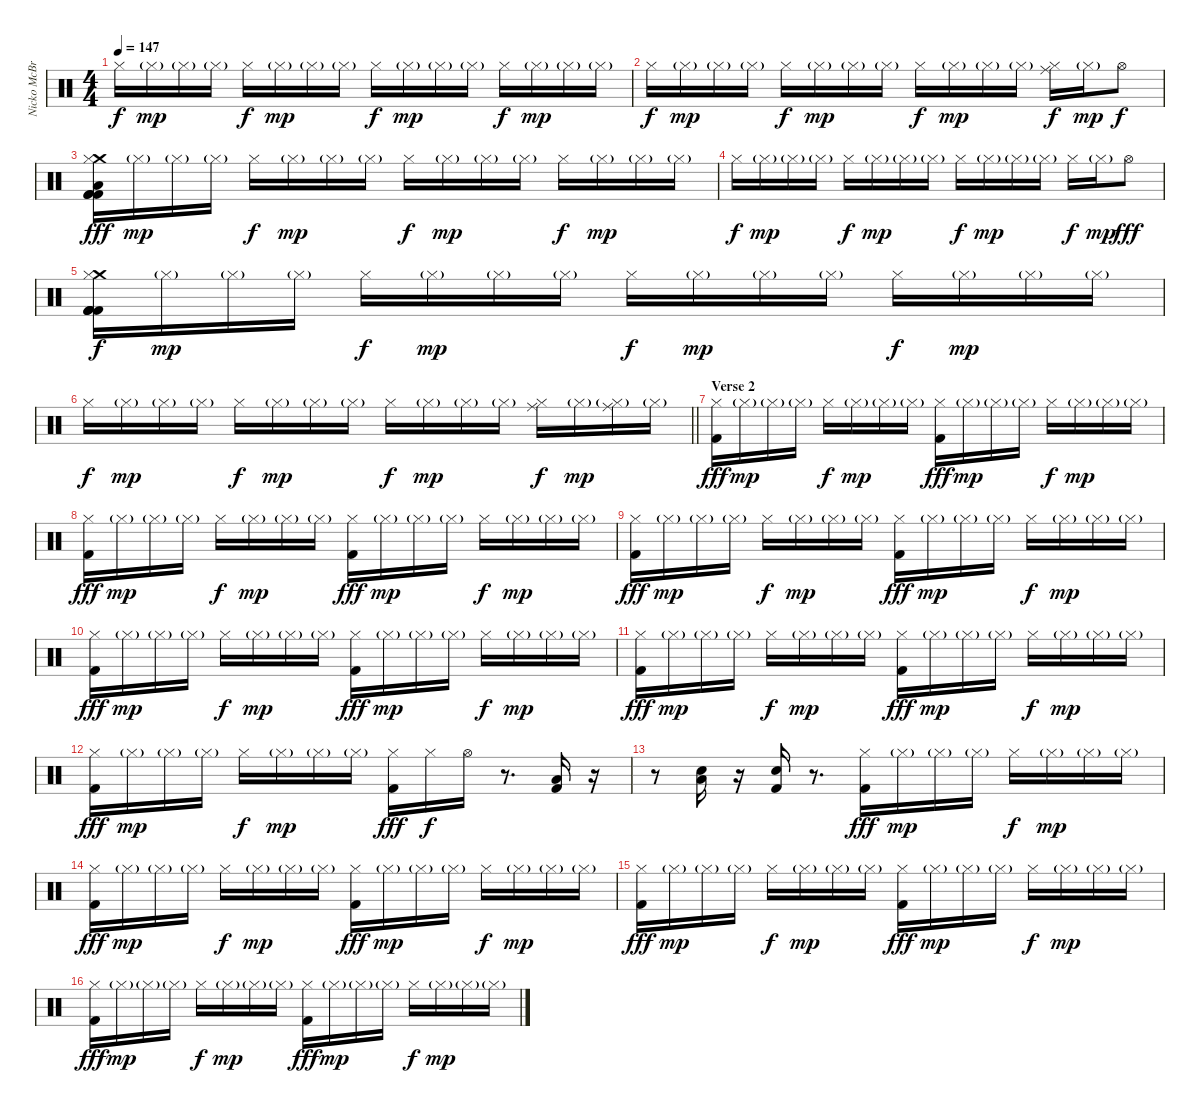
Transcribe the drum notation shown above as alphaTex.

\track ("Nicko McBrain" "Nicko McBr") {instrument percussion}
\staff {score}
\articulation defaults
\ts (4 4)
\tempo 147
\clef neutral
\ks c "Hi-Hat (closed)".16{dy f} "Hi-Hat (closed)"{g}.16{dy mp} "Hi-Hat (closed)"{g}.16 "Hi-Hat (closed)"{g}.16 "Hi-Hat (closed)".16{dy f} "Hi-Hat (closed)"{g}.16{dy mp} "Hi-Hat (closed)"{g}.16 "Hi-Hat (closed)"{g}.16 "Hi-Hat (closed)".16{dy f} "Hi-Hat (closed)"{g}.16{dy mp} "Hi-Hat (closed)"{g}.16 "Hi-Hat (closed)"{g}.16 "Hi-Hat (closed)".16{dy f} "Hi-Hat (closed)"{g}.16{dy mp} "Hi-Hat (closed)"{g}.16 "Hi-Hat (closed)"{g}.16
|
"Hi-Hat (closed)".16{dy f} "Hi-Hat (closed)"{g}.16{dy mp} "Hi-Hat (closed)"{g}.16 "Hi-Hat (closed)"{g}.16 "Hi-Hat (closed)".16{dy f} "Hi-Hat (closed)"{g}.16{dy mp} "Hi-Hat (closed)"{g}.16 "Hi-Hat (closed)"{g}.16 "Hi-Hat (closed)".16{dy f} "Hi-Hat (closed)"{g}.16{dy mp} "Hi-Hat (closed)"{g}.16 "Hi-Hat (closed)"{g}.16 ("Ride (middle)" "Hi-Hat (closed)").16{dy f} "Hi-Hat (closed)"{g}.16{dy mp} "Hi-Hat (open)".8{dy f} |
("Crash medium (hit)" "Low Floor Tom (hit)" "Kick (hit) 2" "Kick (hit) 2" "Hi-Hat (closed)" "Kick (hit) 2").16{dy fff} "Hi-Hat (closed)"{g}.16{dy mp} "Hi-Hat (closed)"{g}.16 "Hi-Hat (closed)"{g}.16 "Hi-Hat (closed)".16{dy f} "Hi-Hat (closed)"{g}.16{dy mp} "Hi-Hat (closed)"{g}.16 "Hi-Hat (closed)"{g}.16 "Hi-Hat (closed)".16{dy f} "Hi-Hat (closed)"{g}.16{dy mp} "Hi-Hat (closed)"{g}.16 "Hi-Hat (closed)"{g}.16 "Hi-Hat (closed)".16{dy f} "Hi-Hat (closed)"{g}.16{dy mp} "Hi-Hat (closed)"{g}.16 "Hi-Hat (closed)"{g}.16 |
"Hi-Hat (closed)".16{dy f} "Hi-Hat (closed)"{g}.16{dy mp} "Hi-Hat (closed)"{g}.16 "Hi-Hat (closed)"{g}.16 "Hi-Hat (closed)".16{dy f} "Hi-Hat (closed)"{g}.16{dy mp} "Hi-Hat (closed)"{g}.16 "Hi-Hat (closed)"{g}.16 "Hi-Hat (closed)".16{dy f} "Hi-Hat (closed)"{g}.16{dy mp} "Hi-Hat (closed)"{g}.16 "Hi-Hat (closed)"{g}.16 "Hi-Hat (closed)".16{dy f} "Hi-Hat (closed)"{g}.16{dy mp} "Hi-Hat (open)".8{dy fff} |
("Crash medium (hit)" "Kick (hit) 2" "Kick (hit) 2" "Kick (hit) 2" "Hi-Hat (closed)" "Kick (hit) 2").16{dy f} "Hi-Hat (closed)"{g}.16{dy mp} "Hi-Hat (closed)"{g}.16 "Hi-Hat (closed)"{g}.16 "Hi-Hat (closed)".16{dy f} "Hi-Hat (closed)"{g}.16{dy mp} "Hi-Hat (closed)"{g}.16 "Hi-Hat (closed)"{g}.16 "Hi-Hat (closed)".16{dy f} "Hi-Hat (closed)"{g}.16{dy mp} "Hi-Hat (closed)"{g}.16 "Hi-Hat (closed)"{g}.16 "Hi-Hat (closed)".16{dy f} "Hi-Hat (closed)"{g}.16{dy mp} "Hi-Hat (closed)"{g}.16 "Hi-Hat (closed)"{g}.16 |
\barLineRight lightlight "Hi-Hat (closed)".16{dy f} "Hi-Hat (closed)"{g}.16{dy mp} "Hi-Hat (closed)"{g}.16 "Hi-Hat (closed)"{g}.16 "Hi-Hat (closed)".16{dy f} "Hi-Hat (closed)"{g}.16{dy mp} "Hi-Hat (closed)"{g}.16 "Hi-Hat (closed)"{g}.16 "Hi-Hat (closed)".16{dy f} "Hi-Hat (closed)"{g}.16{dy mp} "Hi-Hat (closed)"{g}.16 "Hi-Hat (closed)"{g}.16
("Ride (middle)" "Hi-Hat (closed)").16{dy f} "Hi-Hat (closed)"{g}.16{dy mp} ("Ride (middle)" "Hi-Hat (closed)"{g}).16 "Hi-Hat (closed)"{g}.16 |
\section ("" "Verse 2")
("Hi-Hat (closed)" "Kick (hit) 2").16{dy fff} "Hi-Hat (closed)"{g}.16{dy mp} "Hi-Hat (closed)"{g}.16 "Hi-Hat (closed)"{g}.16 "Hi-Hat (closed)".16{dy f} "Hi-Hat (closed)"{g}.16{dy mp} "Hi-Hat (closed)"{g}.16 "Hi-Hat (closed)"{g}.16 ("Hi-Hat (closed)" "Kick (hit) 2").16{dy fff} "Hi-Hat (closed)"{g}.16{dy mp} "Hi-Hat (closed)"{g}.16 "Hi-Hat (closed)"{g}.16 "Hi-Hat (closed)".16{dy f} "Hi-Hat (closed)"{g}.16{dy mp} "Hi-Hat (closed)"{g}.16 "Hi-Hat (closed)"{g}.16 |
("Hi-Hat (closed)" "Kick (hit) 2").16{dy fff} "Hi-Hat (closed)"{g}.16{dy mp} "Hi-Hat (closed)"{g}.16 "Hi-Hat (closed)"{g}.16 "Hi-Hat (closed)".16{dy f} "Hi-Hat (closed)"{g}.16{dy mp} "Hi-Hat (closed)"{g}.16 "Hi-Hat (closed)"{g}.16 ("Hi-Hat (closed)" "Kick (hit) 2").16{dy fff} "Hi-Hat (closed)"{g}.16{dy mp} "Hi-Hat (closed)"{g}.16 "Hi-Hat (closed)"{g}.16 "Hi-Hat (closed)".16{dy f} "Hi-Hat (closed)"{g}.16{dy mp} "Hi-Hat (closed)"{g}.16 "Hi-Hat (closed)"{g}.16 |
("Hi-Hat (closed)" "Kick (hit) 2").16{dy fff} "Hi-Hat (closed)"{g}.16{dy mp} "Hi-Hat (closed)"{g}.16 "Hi-Hat (closed)"{g}.16 "Hi-Hat (closed)".16{dy f} "Hi-Hat (closed)"{g}.16{dy mp} "Hi-Hat (closed)"{g}.16 "Hi-Hat (closed)"{g}.16 ("Hi-Hat (closed)" "Kick (hit) 2").16{dy fff} "Hi-Hat (closed)"{g}.16{dy mp} "Hi-Hat (closed)"{g}.16 "Hi-Hat (closed)"{g}.16 "Hi-Hat (closed)".16{dy f} "Hi-Hat (closed)"{g}.16{dy mp} "Hi-Hat (closed)"{g}.16 "Hi-Hat (closed)"{g}.16 |
("Hi-Hat (closed)" "Kick (hit) 2").16{dy fff} "Hi-Hat (closed)"{g}.16{dy mp} "Hi-Hat (closed)"{g}.16 "Hi-Hat (closed)"{g}.16 "Hi-Hat (closed)".16{dy f} "Hi-Hat (closed)"{g}.16{dy mp} "Hi-Hat (closed)"{g}.16 "Hi-Hat (closed)"{g}.16 ("Hi-Hat (closed)" "Kick (hit) 2").16{dy fff} "Hi-Hat (closed)"{g}.16{dy mp} "Hi-Hat (closed)"{g}.16 "Hi-Hat (closed)"{g}.16 "Hi-Hat (closed)".16{dy f} "Hi-Hat (closed)"{g}.16{dy mp} "Hi-Hat (closed)"{g}.16 "Hi-Hat (closed)"{g}.16 |
("Hi-Hat (closed)" "Kick (hit) 2").16{dy fff} "Hi-Hat (closed)"{g}.16{dy mp} "Hi-Hat (closed)"{g}.16 "Hi-Hat (closed)"{g}.16 "Hi-Hat (closed)".16{dy f} "Hi-Hat (closed)"{g}.16{dy mp} "Hi-Hat (closed)"{g}.16 "Hi-Hat (closed)"{g}.16 ("Hi-Hat (closed)" "Kick (hit) 2").16{dy fff} "Hi-Hat (closed)"{g}.16{dy mp} "Hi-Hat (closed)"{g}.16 "Hi-Hat (closed)"{g}.16 "Hi-Hat (closed)".16{dy f} "Hi-Hat (closed)"{g}.16{dy mp} "Hi-Hat (closed)"{g}.16 "Hi-Hat (closed)"{g}.16 |
("Hi-Hat (closed)" "Kick (hit) 2").16{dy fff} "Hi-Hat (closed)"{g}.16{dy mp} "Hi-Hat (closed)"{g}.16 "Hi-Hat (closed)"{g}.16 "Hi-Hat (closed)".16{dy f} "Hi-Hat (closed)"{g}.16{dy mp} "Hi-Hat (closed)"{g}.16 "Hi-Hat (closed)"{g}.16 ("Hi-Hat (closed)" "Kick (hit) 2").16{dy fff} "Hi-Hat (closed)".16{dy f} "Hi-Hat (open)".16 r.8{d} ("Low Floor Tom (hit)" "Kick (hit) 2").16 r.16 |
r.8 ("Low Floor Tom (hit)" "Snare (hit) 2").16 r.16 ("Snare (hit) 2" "Kick (hit) 2").16 r.8{d} ("Hi-Hat (closed)" "Kick (hit) 2").16{dy fff} "Hi-Hat (closed)"{g}.16{dy mp} "Hi-Hat (closed)"{g}.16 "Hi-Hat (closed)"{g}.16 "Hi-Hat (closed)".16{dy f} "Hi-Hat (closed)"{g}.16{dy mp} "Hi-Hat (closed)"{g}.16 "Hi-Hat (closed)"{g}.16 |
("Hi-Hat (closed)" "Kick (hit) 2").16{dy fff} "Hi-Hat (closed)"{g}.16{dy mp} "Hi-Hat (closed)"{g}.16 "Hi-Hat (closed)"{g}.16 "Hi-Hat (closed)".16{dy f} "Hi-Hat (closed)"{g}.16{dy mp} "Hi-Hat (closed)"{g}.16 "Hi-Hat (closed)"{g}.16 ("Hi-Hat (closed)" "Kick (hit) 2").16{dy fff} "Hi-Hat (closed)"{g}.16{dy mp} "Hi-Hat (closed)"{g}.16 "Hi-Hat (closed)"{g}.16 "Hi-Hat (closed)".16{dy f} "Hi-Hat (closed)"{g}.16{dy mp} "Hi-Hat (closed)"{g}.16 "Hi-Hat (closed)"{g}.16 |
("Hi-Hat (closed)" "Kick (hit) 2").16{dy fff} "Hi-Hat (closed)"{g}.16{dy mp} "Hi-Hat (closed)"{g}.16 "Hi-Hat (closed)"{g}.16 "Hi-Hat (closed)".16{dy f} "Hi-Hat (closed)"{g}.16{dy mp} "Hi-Hat (closed)"{g}.16 "Hi-Hat (closed)"{g}.16 ("Hi-Hat (closed)" "Kick (hit) 2").16{dy fff} "Hi-Hat (closed)"{g}.16{dy mp} "Hi-Hat (closed)"{g}.16 "Hi-Hat (closed)"{g}.16 "Hi-Hat (closed)".16{dy f} "Hi-Hat (closed)"{g}.16{dy mp} "Hi-Hat (closed)"{g}.16 "Hi-Hat (closed)"{g}.16 |
("Hi-Hat (closed)" "Kick (hit) 2").16{dy fff} "Hi-Hat (closed)"{g}.16{dy mp} "Hi-Hat (closed)"{g}.16 "Hi-Hat (closed)"{g}.16 "Hi-Hat (closed)".16{dy f} "Hi-Hat (closed)"{g}.16{dy mp} "Hi-Hat (closed)"{g}.16 "Hi-Hat (closed)"{g}.16 ("Hi-Hat (closed)" "Kick (hit) 2").16{dy fff} "Hi-Hat (closed)"{g}.16{dy mp} "Hi-Hat (closed)"{g}.16 "Hi-Hat (closed)"{g}.16 "Hi-Hat (closed)".16{dy f} "Hi-Hat (closed)"{g}.16{dy mp} "Hi-Hat (closed)"{g}.16 "Hi-Hat (closed)"{g}.16
